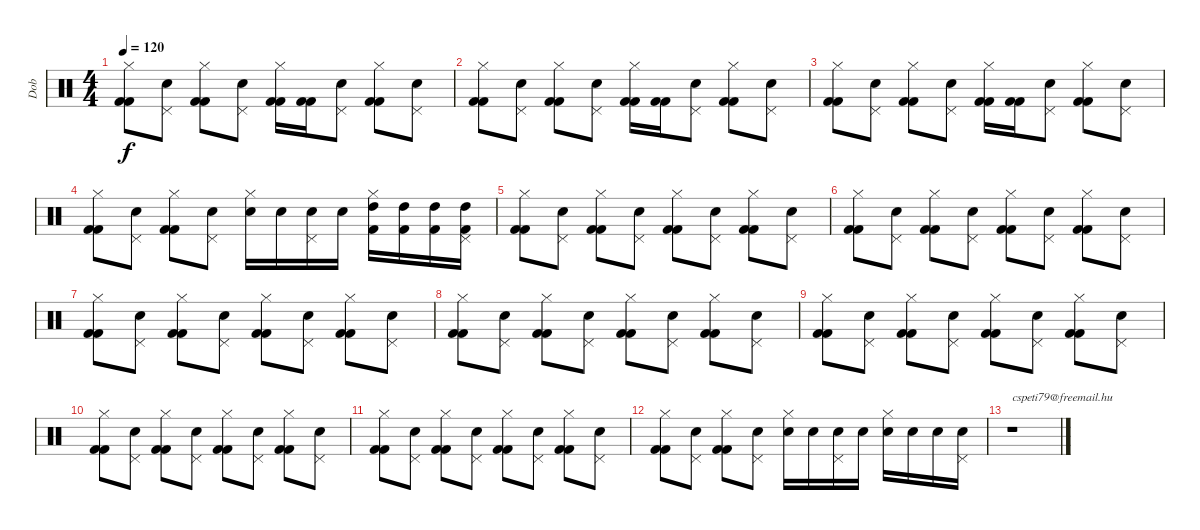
\track ("Dob" "Dob") {instrument percussion}
\staff {score}
\articulation defaults
\ts (4 4)
\tempo 120
\clef neutral
\ks c
("Hi-Hat (closed)" "Kick (hit) 2" "Kick (hit) 2").8{dy f} ("Pedal Hi-Hat (hit)" "Snare (hit) 2").8 ("Hi-Hat (closed)" "Kick (hit) 2" "Kick (hit) 2").8 ("Pedal Hi-Hat (hit)" "Snare (hit) 2").8 ("Hi-Hat (closed)" "Kick (hit) 2" "Kick (hit) 2").16 ("Kick (hit) 2" "Kick (hit) 2").16 ("Pedal Hi-Hat (hit)" "Snare (hit) 2").8 ("Hi-Hat (closed)" "Kick (hit) 2" "Kick (hit) 2").8 ("Pedal Hi-Hat (hit)" "Snare (hit) 2").8 |
("Hi-Hat (closed)" "Kick (hit) 2" "Kick (hit) 2").8 ("Pedal Hi-Hat (hit)" "Snare (hit) 2").8 ("Hi-Hat (closed)" "Kick (hit) 2" "Kick (hit) 2").8 ("Pedal Hi-Hat (hit)" "Snare (hit) 2").8 ("Hi-Hat (closed)" "Kick (hit) 2" "Kick (hit) 2").16 ("Kick (hit) 2" "Kick (hit) 2").16 ("Pedal Hi-Hat (hit)" "Snare (hit) 2").8 ("Hi-Hat (closed)" "Kick (hit) 2" "Kick (hit) 2").8 ("Pedal Hi-Hat (hit)" "Snare (hit) 2").8 |
("Hi-Hat (closed)" "Kick (hit) 2" "Kick (hit) 2").8 ("Pedal Hi-Hat (hit)" "Snare (hit) 2").8 ("Hi-Hat (closed)" "Kick (hit) 2" "Kick (hit) 2").8 ("Pedal Hi-Hat (hit)" "Snare (hit) 2").8 ("Hi-Hat (closed)" "Kick (hit) 2" "Kick (hit) 2").16 ("Kick (hit) 2" "Kick (hit) 2").16 ("Pedal Hi-Hat (hit)" "Snare (hit) 2").8 ("Hi-Hat (closed)" "Kick (hit) 2" "Kick (hit) 2").8 ("Pedal Hi-Hat (hit)" "Snare (hit) 2").8 |
("Hi-Hat (closed)" "Kick (hit) 2" "Kick (hit) 2").8 ("Pedal Hi-Hat (hit)" "Snare (hit) 2").8 ("Hi-Hat (closed)" "Kick (hit) 2" "Kick (hit) 2").8 ("Pedal Hi-Hat (hit)" "Snare (hit) 2").8 ("Hi-Hat (closed)" "Snare (hit) 2").16 "Snare (hit) 2".16 ("Pedal Hi-Hat (hit)" "Snare (hit) 2").16 "Snare (hit) 2".16 ("Hi-Hat (closed)" "Kick (hit) 2" "High Tom (hit)").16 ("Kick (hit) 2" "High Tom (hit)").16 ("Kick (hit) 2" "High Tom (hit)").16 ("Pedal Hi-Hat (hit)" "Kick (hit) 2" "High Tom (hit)").16 |
("Hi-Hat (closed)" "Kick (hit) 2" "Kick (hit) 2").8 ("Pedal Hi-Hat (hit)" "Snare (hit) 2").8 ("Hi-Hat (closed)" "Kick (hit) 2" "Kick (hit) 2").8 ("Pedal Hi-Hat (hit)" "Snare (hit) 2").8 ("Hi-Hat (closed)" "Kick (hit) 2" "Kick (hit) 2").8 ("Pedal Hi-Hat (hit)" "Snare (hit) 2").8 ("Hi-Hat (closed)" "Kick (hit) 2" "Kick (hit) 2").8 ("Pedal Hi-Hat (hit)" "Snare (hit) 2").8 |
("Hi-Hat (closed)" "Kick (hit) 2" "Kick (hit) 2").8 ("Pedal Hi-Hat (hit)" "Snare (hit) 2").8 ("Hi-Hat (closed)" "Kick (hit) 2" "Kick (hit) 2").8 ("Pedal Hi-Hat (hit)" "Snare (hit) 2").8 ("Hi-Hat (closed)" "Kick (hit) 2" "Kick (hit) 2").8 ("Pedal Hi-Hat (hit)" "Snare (hit) 2").8 ("Hi-Hat (closed)" "Kick (hit) 2" "Kick (hit) 2").8 ("Pedal Hi-Hat (hit)" "Snare (hit) 2").8 |
("Hi-Hat (closed)" "Kick (hit) 2" "Kick (hit) 2").8 ("Pedal Hi-Hat (hit)" "Snare (hit) 2").8 ("Hi-Hat (closed)" "Kick (hit) 2" "Kick (hit) 2").8 ("Pedal Hi-Hat (hit)" "Snare (hit) 2").8 ("Hi-Hat (closed)" "Kick (hit) 2" "Kick (hit) 2").8 ("Pedal Hi-Hat (hit)" "Snare (hit) 2").8 ("Hi-Hat (closed)" "Kick (hit) 2" "Kick (hit) 2").8 ("Pedal Hi-Hat (hit)" "Snare (hit) 2").8 |
("Hi-Hat (closed)" "Kick (hit) 2" "Kick (hit) 2").8 ("Pedal Hi-Hat (hit)" "Snare (hit) 2").8 ("Hi-Hat (closed)" "Kick (hit) 2" "Kick (hit) 2").8 ("Pedal Hi-Hat (hit)" "Snare (hit) 2").8 ("Hi-Hat (closed)" "Kick (hit) 2" "Kick (hit) 2").8 ("Pedal Hi-Hat (hit)" "Snare (hit) 2").8 ("Hi-Hat (closed)" "Kick (hit) 2" "Kick (hit) 2").8 ("Pedal Hi-Hat (hit)" "Snare (hit) 2").8 |
("Hi-Hat (closed)" "Kick (hit) 2" "Kick (hit) 2").8 ("Pedal Hi-Hat (hit)" "Snare (hit) 2").8 ("Hi-Hat (closed)" "Kick (hit) 2" "Kick (hit) 2").8 ("Pedal Hi-Hat (hit)" "Snare (hit) 2").8 ("Hi-Hat (closed)" "Kick (hit) 2" "Kick (hit) 2").8 ("Pedal Hi-Hat (hit)" "Snare (hit) 2").8 ("Hi-Hat (closed)" "Kick (hit) 2" "Kick (hit) 2").8 ("Pedal Hi-Hat (hit)" "Snare (hit) 2").8 |
("Hi-Hat (closed)" "Kick (hit) 2" "Kick (hit) 2").8 ("Pedal Hi-Hat (hit)" "Snare (hit) 2").8 ("Hi-Hat (closed)" "Kick (hit) 2" "Kick (hit) 2").8 ("Pedal Hi-Hat (hit)" "Snare (hit) 2").8 ("Hi-Hat (closed)" "Kick (hit) 2" "Kick (hit) 2").8 ("Pedal Hi-Hat (hit)" "Snare (hit) 2").8 ("Hi-Hat (closed)" "Kick (hit) 2" "Kick (hit) 2").8 ("Pedal Hi-Hat (hit)" "Snare (hit) 2").8 |
("Hi-Hat (closed)" "Kick (hit) 2" "Kick (hit) 2").8 ("Pedal Hi-Hat (hit)" "Snare (hit) 2").8 ("Hi-Hat (closed)" "Kick (hit) 2" "Kick (hit) 2").8 ("Pedal Hi-Hat (hit)" "Snare (hit) 2").8 ("Hi-Hat (closed)" "Kick (hit) 2" "Kick (hit) 2").8 ("Pedal Hi-Hat (hit)" "Snare (hit) 2").8 ("Hi-Hat (closed)" "Kick (hit) 2" "Kick (hit) 2").8 ("Pedal Hi-Hat (hit)" "Snare (hit) 2").8 |
("Hi-Hat (closed)" "Kick (hit) 2" "Kick (hit) 2").8 ("Pedal Hi-Hat (hit)" "Snare (hit) 2").8 ("Hi-Hat (closed)" "Kick (hit) 2" "Kick (hit) 2").8 ("Pedal Hi-Hat (hit)" "Snare (hit) 2").8 ("Hi-Hat (closed)" "Snare (hit) 2").16 "Snare (hit) 2".16 ("Pedal Hi-Hat (hit)" "Snare (hit) 2").16 "Snare (hit) 2".16 ("Hi-Hat (closed)" "Snare (hit) 2").16 "Snare (hit) 2".16 "Snare (hit) 2".16 ("Pedal Hi-Hat (hit)" "Snare (hit) 2").16 |
r.1{txt "cspeti79@freemail.hu"}
